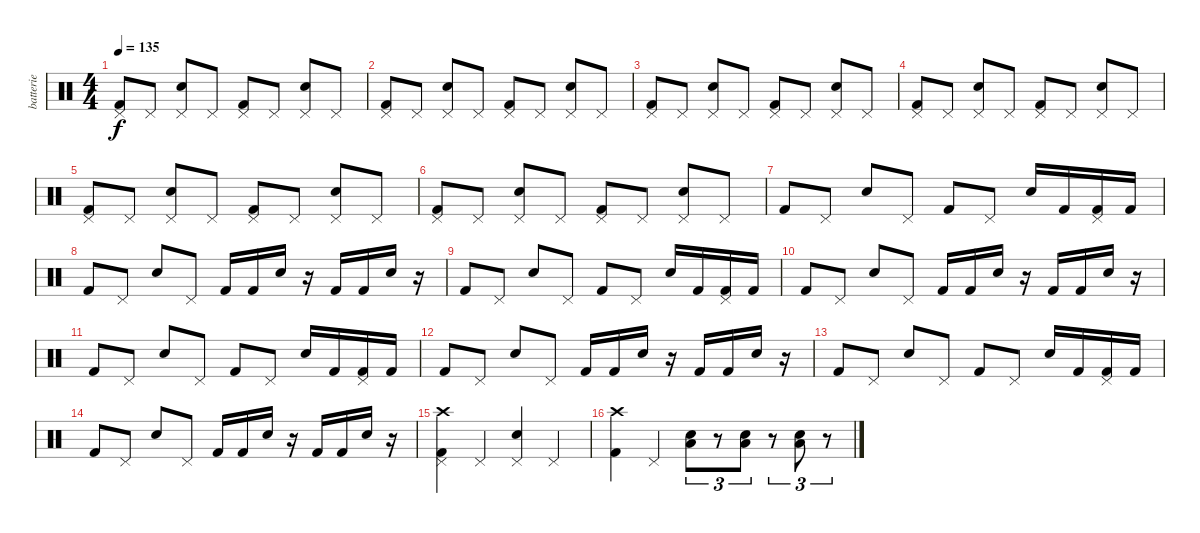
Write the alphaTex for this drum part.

\track ("batterie" "batterie") {instrument percussion}
\staff {score}
\articulation defaults
\ts (4 4)
\tempo 135
\clef neutral
\ks c
("Kick (hit) 2" "Pedal Hi-Hat (hit)").8{dy f} "Pedal Hi-Hat (hit)".8 ("Snare (hit) 2" "Pedal Hi-Hat (hit)").8 "Pedal Hi-Hat (hit)".8 ("Kick (hit) 2" "Pedal Hi-Hat (hit)").8 "Pedal Hi-Hat (hit)".8 ("Snare (hit) 2" "Pedal Hi-Hat (hit)").8 "Pedal Hi-Hat (hit)".8 |
("Kick (hit) 2" "Pedal Hi-Hat (hit)").8 "Pedal Hi-Hat (hit)".8 ("Snare (hit) 2" "Pedal Hi-Hat (hit)").8 "Pedal Hi-Hat (hit)".8 ("Kick (hit) 2" "Pedal Hi-Hat (hit)").8 "Pedal Hi-Hat (hit)".8 ("Snare (hit) 2" "Pedal Hi-Hat (hit)").8 "Pedal Hi-Hat (hit)".8 |
("Kick (hit) 2" "Pedal Hi-Hat (hit)").8 "Pedal Hi-Hat (hit)".8 ("Snare (hit) 2" "Pedal Hi-Hat (hit)").8 "Pedal Hi-Hat (hit)".8 ("Kick (hit) 2" "Pedal Hi-Hat (hit)").8 "Pedal Hi-Hat (hit)".8 ("Snare (hit) 2" "Pedal Hi-Hat (hit)").8 "Pedal Hi-Hat (hit)".8 |
("Kick (hit) 2" "Pedal Hi-Hat (hit)").8 "Pedal Hi-Hat (hit)".8 ("Snare (hit) 2" "Pedal Hi-Hat (hit)").8 "Pedal Hi-Hat (hit)".8 ("Kick (hit) 2" "Pedal Hi-Hat (hit)").8 "Pedal Hi-Hat (hit)".8 ("Snare (hit) 2" "Pedal Hi-Hat (hit)").8 "Pedal Hi-Hat (hit)".8 |
("Kick (hit) 2" "Pedal Hi-Hat (hit)").8 "Pedal Hi-Hat (hit)".8 ("Snare (hit) 2" "Pedal Hi-Hat (hit)").8 "Pedal Hi-Hat (hit)".8 ("Kick (hit) 2" "Pedal Hi-Hat (hit)").8 "Pedal Hi-Hat (hit)".8 ("Snare (hit) 2" "Pedal Hi-Hat (hit)").8 "Pedal Hi-Hat (hit)".8 |
("Kick (hit) 2" "Pedal Hi-Hat (hit)").8 "Pedal Hi-Hat (hit)".8 ("Snare (hit) 2" "Pedal Hi-Hat (hit)").8 "Pedal Hi-Hat (hit)".8 ("Kick (hit) 2" "Pedal Hi-Hat (hit)").8 "Pedal Hi-Hat (hit)".8 ("Snare (hit) 2" "Pedal Hi-Hat (hit)").8 "Pedal Hi-Hat (hit)".8 |
"Kick (hit) 2".8 "Pedal Hi-Hat (hit)".8 "Snare (hit) 2".8 "Pedal Hi-Hat (hit)".8 "Kick (hit) 2".8 "Pedal Hi-Hat (hit)".8 "Snare (hit) 2".16 "Kick (hit) 2".16 ("Kick (hit) 2" "Pedal Hi-Hat (hit)").16 "Kick (hit) 2".16 |
"Kick (hit) 2".8 "Pedal Hi-Hat (hit)".8 "Snare (hit) 2".8 "Pedal Hi-Hat (hit)".8 "Kick (hit) 2".16 "Kick (hit) 2".16 "Snare (hit) 2".16 r.16 "Kick (hit) 2".16 "Kick (hit) 2".16 "Snare (hit) 2".16 r.16 |
"Kick (hit) 2".8 "Pedal Hi-Hat (hit)".8 "Snare (hit) 2".8 "Pedal Hi-Hat (hit)".8 "Kick (hit) 2".8 "Pedal Hi-Hat (hit)".8 "Snare (hit) 2".16 "Kick (hit) 2".16 ("Kick (hit) 2" "Pedal Hi-Hat (hit)").16 "Kick (hit) 2".16 |
"Kick (hit) 2".8 "Pedal Hi-Hat (hit)".8 "Snare (hit) 2".8 "Pedal Hi-Hat (hit)".8 "Kick (hit) 2".16 "Kick (hit) 2".16 "Snare (hit) 2".16 r.16 "Kick (hit) 2".16 "Kick (hit) 2".16 "Snare (hit) 2".16 r.16 |
"Kick (hit) 2".8 "Pedal Hi-Hat (hit)".8 "Snare (hit) 2".8 "Pedal Hi-Hat (hit)".8 "Kick (hit) 2".8 "Pedal Hi-Hat (hit)".8 "Snare (hit) 2".16 "Kick (hit) 2".16 ("Kick (hit) 2" "Pedal Hi-Hat (hit)").16 "Kick (hit) 2".16 |
"Kick (hit) 2".8 "Pedal Hi-Hat (hit)".8 "Snare (hit) 2".8 "Pedal Hi-Hat (hit)".8 "Kick (hit) 2".16 "Kick (hit) 2".16 "Snare (hit) 2".16 r.16 "Kick (hit) 2".16 "Kick (hit) 2".16 "Snare (hit) 2".16 r.16 |
"Kick (hit) 2".8 "Pedal Hi-Hat (hit)".8 "Snare (hit) 2".8 "Pedal Hi-Hat (hit)".8 "Kick (hit) 2".8 "Pedal Hi-Hat (hit)".8 "Snare (hit) 2".16 "Kick (hit) 2".16 ("Kick (hit) 2" "Pedal Hi-Hat (hit)").16 "Kick (hit) 2".16 |
"Kick (hit) 2".8 "Pedal Hi-Hat (hit)".8 "Snare (hit) 2".8 "Pedal Hi-Hat (hit)".8 "Kick (hit) 2".16 "Kick (hit) 2".16 "Snare (hit) 2".16 r.16 "Kick (hit) 2".16 "Kick (hit) 2".16 "Snare (hit) 2".16 r.16 |
("Crash high (hit)" "Kick (hit) 2" "Pedal Hi-Hat (hit)").4 "Pedal Hi-Hat (hit)".4 ("Snare (hit) 2" "Pedal Hi-Hat (hit)").4 "Pedal Hi-Hat (hit)".4 |
("Crash high (hit)" "Kick (hit) 2").4 "Pedal Hi-Hat (hit)".4 ("Low Tom (hit)" "Snare (hit) 2").8{tu (3 2)} r.8{tu (3 2)} ("Low Tom (hit)" "Snare (hit) 2").8{tu (3 2)} r.8{tu (3 2)} ("Low Tom (hit)" "Snare (hit) 2").8{tu (3 2)} r.8{tu (3 2)}
